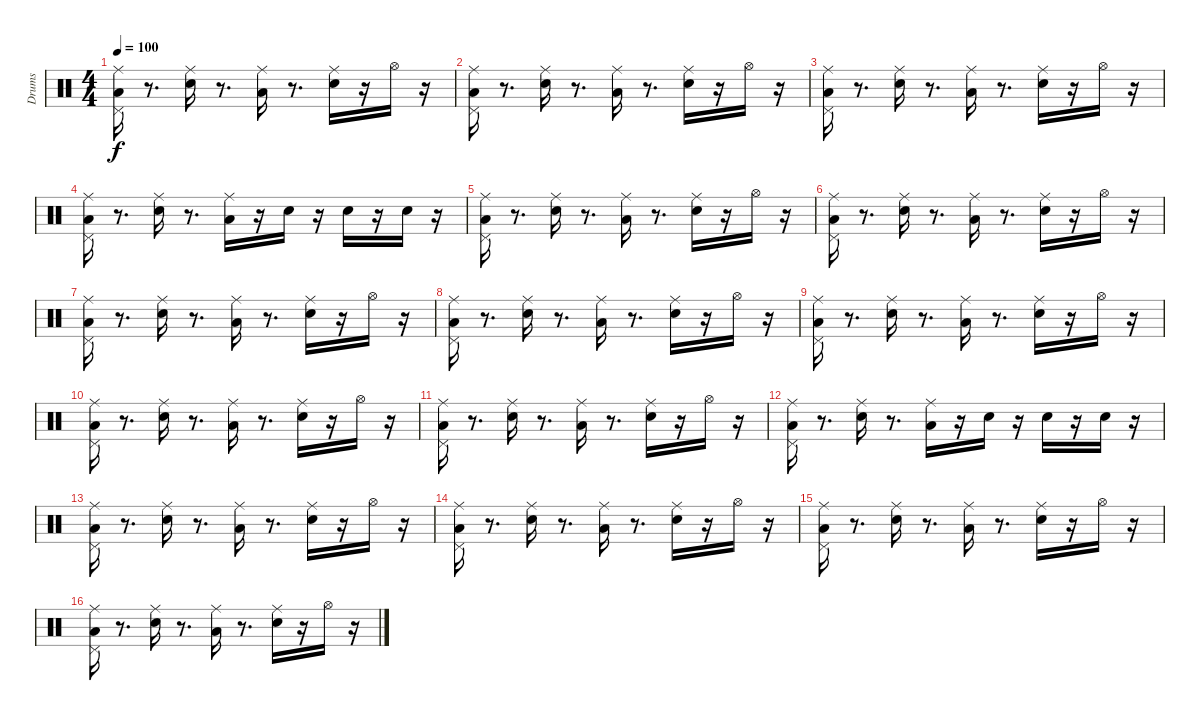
\track ("Drums" "Drums") {instrument percussion}
\staff {score}
\articulation defaults
\ts (4 4)
\tempo 100
\clef neutral
\ks c
("Low Floor Tom (hit)" "Pedal Hi-Hat (hit)" "Ride (middle)").16{dy f} r.8{d} ("Electric Snare (hit)" "Ride (middle)").16 r.8{d} ("Low Floor Tom (hit)" "Ride (middle)").16 r.8{d} ("Ride (middle)" "Electric Snare (hit)").16 r.16 "Hi-Hat (open)".16 r.16 |
("Low Floor Tom (hit)" "Pedal Hi-Hat (hit)" "Ride (middle)").16 r.8{d} ("Electric Snare (hit)" "Ride (middle)").16 r.8{d} ("Low Floor Tom (hit)" "Ride (middle)").16 r.8{d} ("Ride (middle)" "Electric Snare (hit)").16 r.16 "Hi-Hat (open)".16 r.16 |
("Low Floor Tom (hit)" "Pedal Hi-Hat (hit)" "Ride (middle)").16 r.8{d} ("Electric Snare (hit)" "Ride (middle)").16 r.8{d} ("Low Floor Tom (hit)" "Ride (middle)").16 r.8{d} ("Ride (middle)" "Electric Snare (hit)").16 r.16 "Hi-Hat (open)".16 r.16 |
("Low Floor Tom (hit)" "Pedal Hi-Hat (hit)" "Ride (middle)").16 r.8{d} ("Electric Snare (hit)" "Ride (middle)").16 r.8{d} ("Low Floor Tom (hit)" "Ride (middle)").16 r.16 "Electric Snare (hit)".16 r.16 "Electric Snare (hit)".16 r.16 "Electric Snare (hit)".16 r.16 |
("Low Floor Tom (hit)" "Pedal Hi-Hat (hit)" "Ride (middle)").16 r.8{d} ("Electric Snare (hit)" "Ride (middle)").16 r.8{d} ("Low Floor Tom (hit)" "Ride (middle)").16 r.8{d} ("Ride (middle)" "Electric Snare (hit)").16 r.16 "Hi-Hat (open)".16 r.16 |
("Low Floor Tom (hit)" "Pedal Hi-Hat (hit)" "Ride (middle)").16 r.8{d} ("Electric Snare (hit)" "Ride (middle)").16 r.8{d} ("Low Floor Tom (hit)" "Ride (middle)").16 r.8{d} ("Ride (middle)" "Electric Snare (hit)").16 r.16 "Hi-Hat (open)".16 r.16 |
("Low Floor Tom (hit)" "Pedal Hi-Hat (hit)" "Ride (middle)").16 r.8{d} ("Electric Snare (hit)" "Ride (middle)").16 r.8{d} ("Low Floor Tom (hit)" "Ride (middle)").16 r.8{d} ("Ride (middle)" "Electric Snare (hit)").16 r.16 "Hi-Hat (open)".16 r.16 |
("Low Floor Tom (hit)" "Pedal Hi-Hat (hit)" "Ride (middle)").16 r.8{d} ("Electric Snare (hit)" "Ride (middle)").16 r.8{d} ("Low Floor Tom (hit)" "Ride (middle)").16 r.8{d} ("Ride (middle)" "Electric Snare (hit)").16 r.16 "Hi-Hat (open)".16 r.16 |
("Low Floor Tom (hit)" "Pedal Hi-Hat (hit)" "Ride (middle)").16 r.8{d} ("Electric Snare (hit)" "Ride (middle)").16 r.8{d} ("Low Floor Tom (hit)" "Ride (middle)").16 r.8{d} ("Ride (middle)" "Electric Snare (hit)").16 r.16 "Hi-Hat (open)".16 r.16 |
("Low Floor Tom (hit)" "Pedal Hi-Hat (hit)" "Ride (middle)").16 r.8{d} ("Electric Snare (hit)" "Ride (middle)").16 r.8{d} ("Low Floor Tom (hit)" "Ride (middle)").16 r.8{d} ("Ride (middle)" "Electric Snare (hit)").16 r.16 "Hi-Hat (open)".16 r.16 |
("Low Floor Tom (hit)" "Pedal Hi-Hat (hit)" "Ride (middle)").16 r.8{d} ("Electric Snare (hit)" "Ride (middle)").16 r.8{d} ("Low Floor Tom (hit)" "Ride (middle)").16 r.8{d} ("Ride (middle)" "Electric Snare (hit)").16 r.16 "Hi-Hat (open)".16 r.16 |
("Low Floor Tom (hit)" "Pedal Hi-Hat (hit)" "Ride (middle)").16 r.8{d} ("Electric Snare (hit)" "Ride (middle)").16 r.8{d} ("Low Floor Tom (hit)" "Ride (middle)").16 r.16 "Electric Snare (hit)".16 r.16 "Electric Snare (hit)".16 r.16 "Electric Snare (hit)".16 r.16 |
("Low Floor Tom (hit)" "Pedal Hi-Hat (hit)" "Ride (middle)").16 r.8{d} ("Electric Snare (hit)" "Ride (middle)").16 r.8{d} ("Low Floor Tom (hit)" "Ride (middle)").16 r.8{d} ("Ride (middle)" "Electric Snare (hit)").16 r.16 "Hi-Hat (open)".16 r.16 |
("Low Floor Tom (hit)" "Pedal Hi-Hat (hit)" "Ride (middle)").16 r.8{d} ("Electric Snare (hit)" "Ride (middle)").16 r.8{d} ("Low Floor Tom (hit)" "Ride (middle)").16 r.8{d} ("Ride (middle)" "Electric Snare (hit)").16 r.16 "Hi-Hat (open)".16 r.16 |
("Low Floor Tom (hit)" "Pedal Hi-Hat (hit)" "Ride (middle)").16 r.8{d} ("Electric Snare (hit)" "Ride (middle)").16 r.8{d} ("Low Floor Tom (hit)" "Ride (middle)").16 r.8{d} ("Ride (middle)" "Electric Snare (hit)").16 r.16 "Hi-Hat (open)".16 r.16 |
("Low Floor Tom (hit)" "Pedal Hi-Hat (hit)" "Ride (middle)").16 r.8{d} ("Electric Snare (hit)" "Ride (middle)").16 r.8{d} ("Low Floor Tom (hit)" "Ride (middle)").16 r.8{d} ("Ride (middle)" "Electric Snare (hit)").16 r.16 "Hi-Hat (open)".16 r.16
